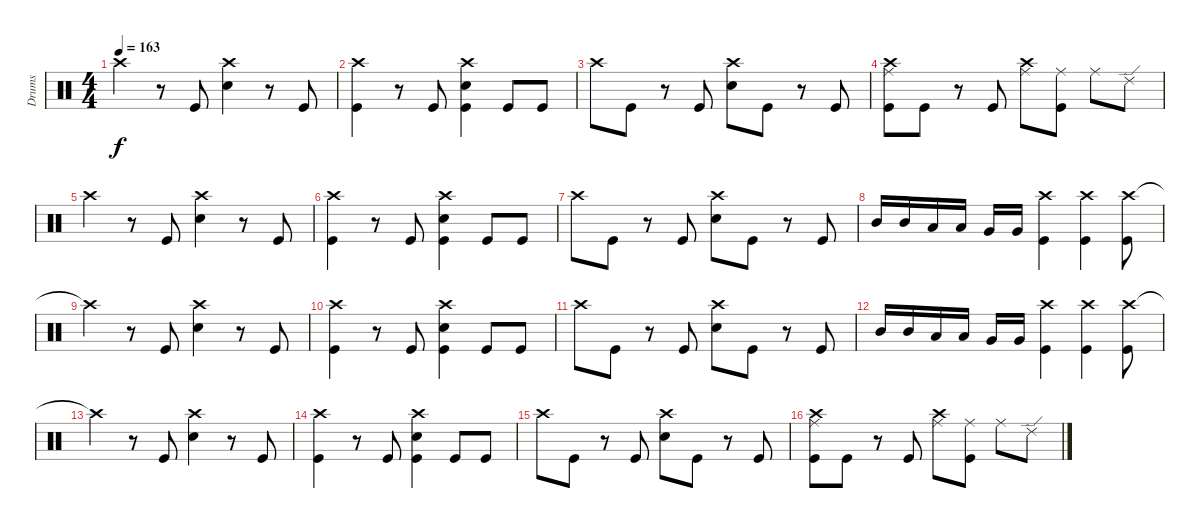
\track ("Drums" "Drums") {instrument percussion}
\staff {score}
\articulation defaults
\ts (4 4)
\tempo 163
\clef neutral
\ks c "Crash high (hit)".4{dy f}
r.8 "Kick (hit)".8 ("Crash high (hit)" "Snare (hit) 2").4 r.8 "Kick (hit)".8 |
("Crash high (hit)" "Kick (hit)").4 r.8 "Kick (hit)".8 ("Crash high (hit)" "Snare (hit) 2" "Kick (hit)").4 "Kick (hit)".8 "Kick (hit)".8 |
"Crash high (hit)".8 "Kick (hit)".8 r.8 "Kick (hit)".8 ("Crash high (hit)" "Snare (hit) 2").8 "Kick (hit)".8 r.8 "Kick (hit)".8 |
("Crash high (hit)" "Ride (middle)" "Kick (hit)").8 "Kick (hit)".8 r.8 "Kick (hit)".8 ("Crash high (hit)" "Ride (middle)").8 ("Ride (middle)" "Kick (hit)").8 "Ride (middle)".8 "Ride (edge) 2".8 |
"Crash high (hit)".4 r.8 "Kick (hit)".8 ("Crash high (hit)" "Snare (hit) 2").4 r.8 "Kick (hit)".8 |
("Crash high (hit)" "Kick (hit)").4 r.8 "Kick (hit)".8 ("Crash high (hit)" "Snare (hit) 2" "Kick (hit)").4 "Kick (hit)".8 "Kick (hit)".8 |
"Crash high (hit)".8 "Kick (hit)".8 r.8 "Kick (hit)".8 ("Crash high (hit)" "Snare (hit) 2").8 "Kick (hit)".8 r.8 "Kick (hit)".8 |
"Mid Tom (hit)".16 "Mid Tom (hit)".16 "Low Tom (hit)".16 "Low Tom (hit)".16 "Very Low Tom (hit)".16 "Very Low Tom (hit)".16 ("Crash high (hit)" "Kick (hit)").4 ("Crash high (hit)" "Kick (hit)").4 ("Crash high (hit)" "Kick (hit)").8 |
"Crash high (hit)"{t}.4 r.8 "Kick (hit)".8 ("Crash high (hit)" "Snare (hit) 2").4 r.8 "Kick (hit)".8 |
("Crash high (hit)" "Kick (hit)").4 r.8 "Kick (hit)".8 ("Crash high (hit)" "Snare (hit) 2" "Kick (hit)").4 "Kick (hit)".8 "Kick (hit)".8 |
"Crash high (hit)".8 "Kick (hit)".8 r.8 "Kick (hit)".8 ("Crash high (hit)" "Snare (hit) 2").8 "Kick (hit)".8 r.8 "Kick (hit)".8 |
"Mid Tom (hit)".16 "Mid Tom (hit)".16 "Low Tom (hit)".16 "Low Tom (hit)".16 "Very Low Tom (hit)".16 "Very Low Tom (hit)".16 ("Crash high (hit)" "Kick (hit)").4 ("Crash high (hit)" "Kick (hit)").4 ("Crash high (hit)" "Kick (hit)").8 |
"Crash high (hit)"{t}.4 r.8 "Kick (hit)".8 ("Crash high (hit)" "Snare (hit) 2").4 r.8 "Kick (hit)".8 |
("Crash high (hit)" "Kick (hit)").4 r.8 "Kick (hit)".8 ("Crash high (hit)" "Snare (hit) 2" "Kick (hit)").4 "Kick (hit)".8 "Kick (hit)".8 |
"Crash high (hit)".8 "Kick (hit)".8 r.8 "Kick (hit)".8 ("Crash high (hit)" "Snare (hit) 2").8 "Kick (hit)".8 r.8 "Kick (hit)".8 |
("Crash high (hit)" "Ride (middle)" "Kick (hit)").8 "Kick (hit)".8 r.8 "Kick (hit)".8 ("Crash high (hit)" "Ride (middle)").8 ("Ride (middle)" "Kick (hit)").8 "Ride (middle)".8 "Ride (edge) 2".8
